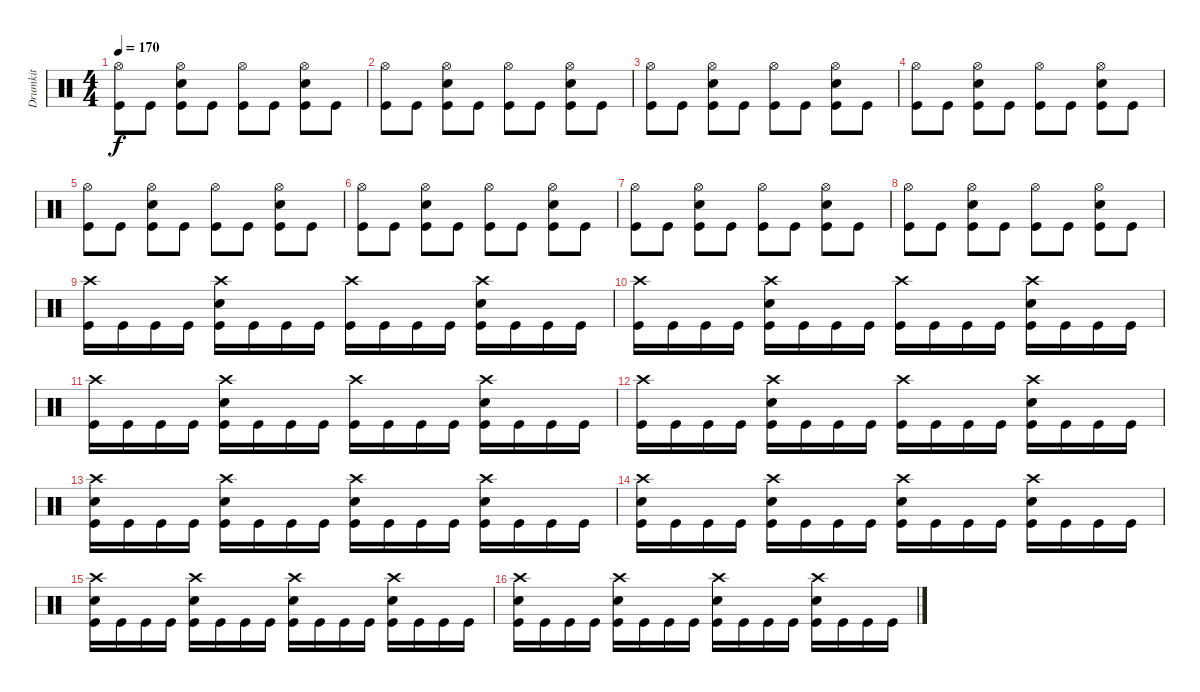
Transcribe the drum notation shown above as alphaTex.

\track ("Drumkit" "Drumkit") {instrument percussion}
\staff {score}
\articulation defaults
\ts (4 4)
\tempo 170
\clef neutral
\ks c
("Hi-Hat (open)" "Kick (hit)").8{dy f} "Kick (hit)".8 ("Snare (hit) 2" "Hi-Hat (open)" "Kick (hit)").8 "Kick (hit)".8 ("Hi-Hat (open)" "Kick (hit)").8 "Kick (hit)".8 ("Snare (hit) 2" "Hi-Hat (open)" "Kick (hit)").8 "Kick (hit)".8 |
("Hi-Hat (open)" "Kick (hit)").8 "Kick (hit)".8 ("Snare (hit) 2" "Hi-Hat (open)" "Kick (hit)").8 "Kick (hit)".8 ("Hi-Hat (open)" "Kick (hit)").8 "Kick (hit)".8 ("Snare (hit) 2" "Hi-Hat (open)" "Kick (hit)").8 "Kick (hit)".8 |
("Hi-Hat (open)" "Kick (hit)").8 "Kick (hit)".8 ("Snare (hit) 2" "Hi-Hat (open)" "Kick (hit)").8 "Kick (hit)".8 ("Hi-Hat (open)" "Kick (hit)").8 "Kick (hit)".8 ("Snare (hit) 2" "Hi-Hat (open)" "Kick (hit)").8 "Kick (hit)".8 |
("Hi-Hat (open)" "Kick (hit)").8 "Kick (hit)".8 ("Snare (hit) 2" "Hi-Hat (open)" "Kick (hit)").8 "Kick (hit)".8 ("Hi-Hat (open)" "Kick (hit)").8 "Kick (hit)".8 ("Snare (hit) 2" "Hi-Hat (open)" "Kick (hit)").8 "Kick (hit)".8 |
("Hi-Hat (open)" "Kick (hit)").8 "Kick (hit)".8 ("Snare (hit) 2" "Hi-Hat (open)" "Kick (hit)").8 "Kick (hit)".8 ("Hi-Hat (open)" "Kick (hit)").8 "Kick (hit)".8 ("Snare (hit) 2" "Hi-Hat (open)" "Kick (hit)").8 "Kick (hit)".8 |
("Hi-Hat (open)" "Kick (hit)").8 "Kick (hit)".8 ("Snare (hit) 2" "Hi-Hat (open)" "Kick (hit)").8 "Kick (hit)".8 ("Hi-Hat (open)" "Kick (hit)").8 "Kick (hit)".8 ("Snare (hit) 2" "Hi-Hat (open)" "Kick (hit)").8 "Kick (hit)".8 |
("Hi-Hat (open)" "Kick (hit)").8 "Kick (hit)".8 ("Snare (hit) 2" "Hi-Hat (open)" "Kick (hit)").8 "Kick (hit)".8 ("Hi-Hat (open)" "Kick (hit)").8 "Kick (hit)".8 ("Snare (hit) 2" "Hi-Hat (open)" "Kick (hit)").8 "Kick (hit)".8 |
("Hi-Hat (open)" "Kick (hit)").8 "Kick (hit)".8 ("Snare (hit) 2" "Hi-Hat (open)" "Kick (hit)").8 "Kick (hit)".8 ("Hi-Hat (open)" "Kick (hit)").8 "Kick (hit)".8 ("Snare (hit) 2" "Hi-Hat (open)" "Kick (hit)").8 "Kick (hit)".8 |
("Crash high (hit)" "Kick (hit)").16 "Kick (hit)".16 "Kick (hit)".16 "Kick (hit)".16 ("Snare (hit) 2" "Crash high (hit)" "Kick (hit)").16 "Kick (hit)".16 "Kick (hit)".16 "Kick (hit)".16 ("Crash high (hit)" "Kick (hit)").16 "Kick (hit)".16 "Kick (hit)".16 "Kick (hit)".16 ("Snare (hit) 2" "Crash high (hit)" "Kick (hit)").16 "Kick (hit)".16 "Kick (hit)".16 "Kick (hit)".16 |
("Crash high (hit)" "Kick (hit)").16 "Kick (hit)".16 "Kick (hit)".16 "Kick (hit)".16 ("Snare (hit) 2" "Crash high (hit)" "Kick (hit)").16 "Kick (hit)".16 "Kick (hit)".16 "Kick (hit)".16 ("Crash high (hit)" "Kick (hit)").16 "Kick (hit)".16 "Kick (hit)".16 "Kick (hit)".16 ("Snare (hit) 2" "Crash high (hit)" "Kick (hit)").16 "Kick (hit)".16 "Kick (hit)".16 "Kick (hit)".16 |
("Crash high (hit)" "Kick (hit)").16 "Kick (hit)".16 "Kick (hit)".16 "Kick (hit)".16 ("Snare (hit) 2" "Crash high (hit)" "Kick (hit)").16 "Kick (hit)".16 "Kick (hit)".16 "Kick (hit)".16 ("Crash high (hit)" "Kick (hit)").16 "Kick (hit)".16 "Kick (hit)".16 "Kick (hit)".16 ("Snare (hit) 2" "Crash high (hit)" "Kick (hit)").16 "Kick (hit)".16 "Kick (hit)".16 "Kick (hit)".16 |
("Crash high (hit)" "Kick (hit)").16 "Kick (hit)".16 "Kick (hit)".16 "Kick (hit)".16 ("Snare (hit) 2" "Crash high (hit)" "Kick (hit)").16 "Kick (hit)".16 "Kick (hit)".16 "Kick (hit)".16 ("Crash high (hit)" "Kick (hit)").16 "Kick (hit)".16 "Kick (hit)".16 "Kick (hit)".16 ("Snare (hit) 2" "Crash high (hit)" "Kick (hit)").16 "Kick (hit)".16 "Kick (hit)".16 "Kick (hit)".16 |
("Snare (hit) 2" "Crash high (hit)" "Kick (hit)").16 "Kick (hit)".16 "Kick (hit)".16 "Kick (hit)".16 ("Snare (hit) 2" "Crash high (hit)" "Kick (hit)").16 "Kick (hit)".16 "Kick (hit)".16 "Kick (hit)".16 ("Snare (hit) 2" "Crash high (hit)" "Kick (hit)").16 "Kick (hit)".16 "Kick (hit)".16 "Kick (hit)".16 ("Snare (hit) 2" "Crash high (hit)" "Kick (hit)").16 "Kick (hit)".16 "Kick (hit)".16 "Kick (hit)".16 |
("Snare (hit) 2" "Crash high (hit)" "Kick (hit)").16 "Kick (hit)".16 "Kick (hit)".16 "Kick (hit)".16 ("Snare (hit) 2" "Crash high (hit)" "Kick (hit)").16 "Kick (hit)".16 "Kick (hit)".16 "Kick (hit)".16 ("Snare (hit) 2" "Crash high (hit)" "Kick (hit)").16 "Kick (hit)".16 "Kick (hit)".16 "Kick (hit)".16 ("Snare (hit) 2" "Crash high (hit)" "Kick (hit)").16 "Kick (hit)".16 "Kick (hit)".16 "Kick (hit)".16 |
("Snare (hit) 2" "Crash high (hit)" "Kick (hit)").16 "Kick (hit)".16 "Kick (hit)".16 "Kick (hit)".16 ("Snare (hit) 2" "Crash high (hit)" "Kick (hit)").16 "Kick (hit)".16 "Kick (hit)".16 "Kick (hit)".16 ("Snare (hit) 2" "Crash high (hit)" "Kick (hit)").16 "Kick (hit)".16 "Kick (hit)".16 "Kick (hit)".16 ("Snare (hit) 2" "Crash high (hit)" "Kick (hit)").16 "Kick (hit)".16 "Kick (hit)".16 "Kick (hit)".16 |
("Snare (hit) 2" "Crash high (hit)" "Kick (hit)").16 "Kick (hit)".16 "Kick (hit)".16 "Kick (hit)".16 ("Snare (hit) 2" "Crash high (hit)" "Kick (hit)").16 "Kick (hit)".16 "Kick (hit)".16 "Kick (hit)".16 ("Snare (hit) 2" "Crash high (hit)" "Kick (hit)").16 "Kick (hit)".16 "Kick (hit)".16 "Kick (hit)".16 ("Snare (hit) 2" "Crash high (hit)" "Kick (hit)").16 "Kick (hit)".16 "Kick (hit)".16 "Kick (hit)".16
